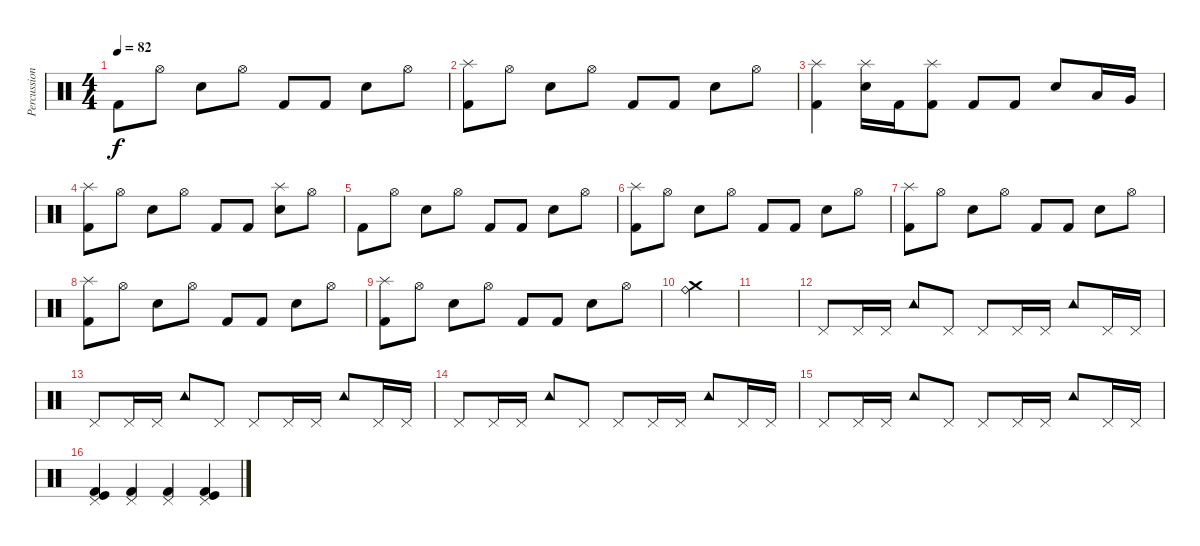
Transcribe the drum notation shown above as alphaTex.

\track ("Percussion" "Percussion") {instrument percussion}
\staff {score}
\articulation defaults
\ts (4 4)
\tempo 82
\clef neutral
\ks c "Kick (hit) 2".8{dy f} "Hi-Hat (open)".8 "Snare (hit) 2".8 "Hi-Hat (open)".8 "Kick (hit) 2".8 "Kick (hit) 2".8 "Snare (hit) 2".8 "Hi-Hat (open)".8
|
("Splash (hit)" "Kick (hit) 2").8 "Hi-Hat (open)".8 "Snare (hit) 2".8 "Hi-Hat (open)".8 "Kick (hit) 2".8 "Kick (hit) 2".8 "Snare (hit) 2".8 "Hi-Hat (open)".8 |
("Splash (hit)" "Kick (hit) 2").4 ("Splash (hit)" "Snare (hit) 2").16 "Kick (hit) 2".16 ("Splash (hit)" "Kick (hit) 2").8 "Kick (hit) 2".8 "Kick (hit) 2".8 "Snare (hit) 2".8 "Low Tom (hit)".16 "Very Low Tom (hit)".16 |
("Kick (hit) 2" "Splash (hit)").8 "Hi-Hat (open)".8 "Snare (hit) 2".8 "Hi-Hat (open)".8 "Kick (hit) 2".8 "Kick (hit) 2".8 ("Splash (hit)" "Snare (hit) 2").8 "Hi-Hat (open)".8 |
"Kick (hit) 2".8 "Hi-Hat (open)".8 "Snare (hit) 2".8 "Hi-Hat (open)".8 "Kick (hit) 2".8 "Kick (hit) 2".8 "Snare (hit) 2".8 "Hi-Hat (open)".8 |
("Splash (hit)" "Kick (hit) 2").8 "Hi-Hat (open)".8 "Snare (hit) 2".8 "Hi-Hat (open)".8 "Kick (hit) 2".8 "Kick (hit) 2".8 "Snare (hit) 2".8 "Hi-Hat (open)".8 |
("Splash (hit)" "Kick (hit) 2").8 "Hi-Hat (open)".8 "Snare (hit) 2".8 "Hi-Hat (open)".8 "Kick (hit) 2".8 "Kick (hit) 2".8 "Snare (hit) 2".8 "Hi-Hat (open)".8 |
("Splash (hit)" "Kick (hit) 2").8 "Hi-Hat (open)".8 "Snare (hit) 2".8 "Hi-Hat (open)".8 "Kick (hit) 2".8 "Kick (hit) 2".8 "Snare (hit) 2".8 "Hi-Hat (open)".8 |
("Splash (hit)" "Kick (hit) 2").8 "Hi-Hat (open)".8 "Snare (hit) 2".8 "Hi-Hat (open)".8 "Kick (hit) 2".8 "Kick (hit) 2".8 "Snare (hit) 2".8 "Hi-Hat (open)".8 |
("Crash medium (hit)" "Ride (bell)").4 |
|
"Pedal Hi-Hat (hit)".8 "Pedal Hi-Hat (hit)".16 "Pedal Hi-Hat (hit)".16 "Tambourine (hit)".8 "Pedal Hi-Hat (hit)".8 "Pedal Hi-Hat (hit)".8 "Pedal Hi-Hat (hit)".16 "Pedal Hi-Hat (hit)".16 "Tambourine (hit)".8 "Pedal Hi-Hat (hit)".16 "Pedal Hi-Hat (hit)".16 |
"Pedal Hi-Hat (hit)".8 "Pedal Hi-Hat (hit)".16 "Pedal Hi-Hat (hit)".16 "Tambourine (hit)".8 "Pedal Hi-Hat (hit)".8 "Pedal Hi-Hat (hit)".8 "Pedal Hi-Hat (hit)".16 "Pedal Hi-Hat (hit)".16 "Tambourine (hit)".8 "Pedal Hi-Hat (hit)".16 "Pedal Hi-Hat (hit)".16 |
"Pedal Hi-Hat (hit)".8 "Pedal Hi-Hat (hit)".16 "Pedal Hi-Hat (hit)".16 "Tambourine (hit)".8 "Pedal Hi-Hat (hit)".8 "Pedal Hi-Hat (hit)".8 "Pedal Hi-Hat (hit)".16 "Pedal Hi-Hat (hit)".16 "Tambourine (hit)".8 "Pedal Hi-Hat (hit)".16 "Pedal Hi-Hat (hit)".16 |
"Pedal Hi-Hat (hit)".8 "Pedal Hi-Hat (hit)".16 "Pedal Hi-Hat (hit)".16 "Tambourine (hit)".8 "Pedal Hi-Hat (hit)".8 "Pedal Hi-Hat (hit)".8 "Pedal Hi-Hat (hit)".16 "Pedal Hi-Hat (hit)".16 "Tambourine (hit)".8 "Pedal Hi-Hat (hit)".16 "Pedal Hi-Hat (hit)".16 |
("Kick (hit)" "Kick (hit) 2" "Pedal Hi-Hat (hit)").4 ("Kick (hit) 2" "Pedal Hi-Hat (hit)").4 ("Pedal Hi-Hat (hit)" "Kick (hit) 2").4 ("Pedal Hi-Hat (hit)" "Kick (hit)" "Kick (hit) 2").4
